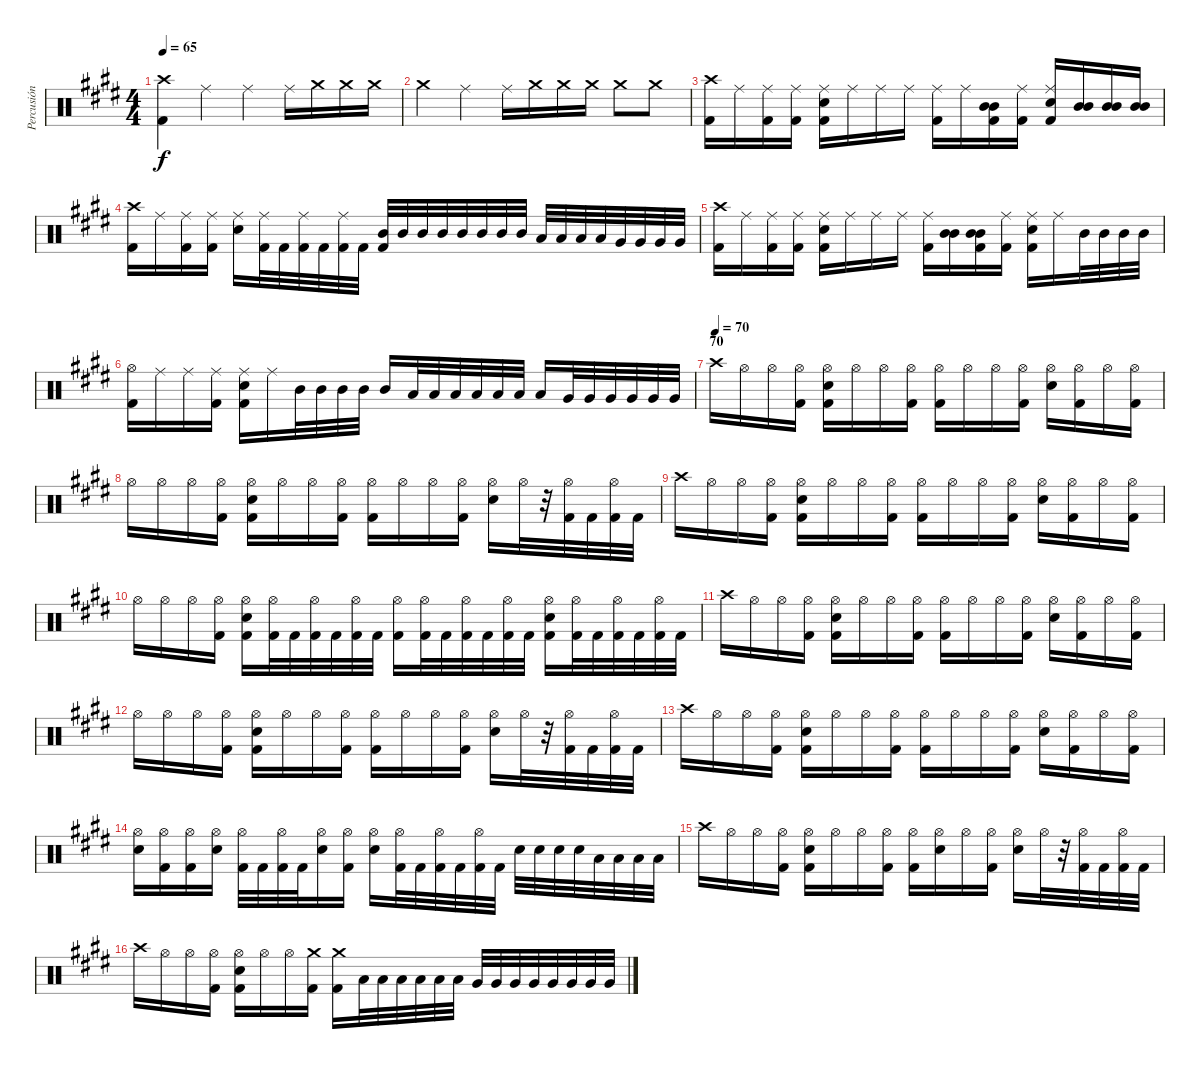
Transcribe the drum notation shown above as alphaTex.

\track ("Percusión" "Percusión") {instrument percussion}
\staff {score}
\articulation defaults
\ts (4 4)
\tempo 65
\clef neutral
\ks e
("Crash high (hit)" "Kick (hit) 2").4{dy f} "Ride (middle)".4 "Ride (middle)".4 "Ride (middle)".16 "Crash medium (hit)".16 "Crash medium (hit)".16 "Crash medium (hit)".16 |
"Crash medium (hit)".4 "Ride (middle)".4 "Ride (middle)".16 "Crash medium (hit)".16 "Crash medium (hit)".16 "Crash medium (hit)".16 "Crash medium (hit)".8 "Crash medium (hit)".8 |
("Crash high (hit)" "Kick (hit) 2").16 "Ride (middle)".16 ("Ride (middle)" "Kick (hit) 2").16 ("Ride (middle)" "Kick (hit) 2").16 ("Ride (middle)" "Snare (hit) 2" "Kick (hit) 2").16 "Ride (middle)".16 "Ride (middle)".16 "Ride (middle)".16 ("Ride (middle)" "Kick (hit) 2").16 "Ride (middle)".16 ("Mid Tom (hit)" "Mid Tom (hit)" "Kick (hit) 2").16 ("Ride (middle)" "Kick (hit) 2").16 ("Ride (middle)" "Snare (hit) 2" "Kick (hit) 2").16 ("Mid Tom (hit)" "Mid Tom (hit)").16 ("Mid Tom (hit)" "Mid Tom (hit)").16 ("Mid Tom (hit)" "Mid Tom (hit)").16 |
("Crash high (hit)" "Kick (hit) 2").16 "Ride (middle)".16 ("Ride (middle)" "Kick (hit) 2").16 ("Ride (middle)" "Kick (hit) 2").16 ("Ride (middle)" "Snare (hit) 2").16 ("Ride (middle)" "Kick (hit) 2").32 "Kick (hit) 2".32 ("Ride (middle)" "Kick (hit) 2").32 "Kick (hit) 2".32 ("Ride (middle)" "Kick (hit) 2").32 "Kick (hit) 2".32 ("Mid Tom (hit)" "Kick (hit) 2").32 "Mid Tom (hit)".32 "Mid Tom (hit)".32 "Mid Tom (hit)".32 "Mid Tom (hit)".32 "Mid Tom (hit)".32 "Mid Tom (hit)".32 "Mid Tom (hit)".32 "Low Tom (hit)".32 "Low Tom (hit)".32 "Low Tom (hit)".32 "Low Tom (hit)".32 "Very Low Tom (hit)".32 "Very Low Tom (hit)".32 "Very Low Tom (hit)".32 "Very Low Tom (hit)".32 |
("Crash high (hit)" "Kick (hit) 2").16 "Ride (middle)".16 ("Ride (middle)" "Kick (hit) 2").16 ("Ride (middle)" "Kick (hit) 2").16 ("Ride (middle)" "Snare (hit) 2" "Kick (hit) 2").16 "Ride (middle)".16 "Ride (middle)".16 "Ride (middle)".16 ("Ride (middle)" "Kick (hit) 2").16 ("Mid Tom (hit)" "Mid Tom (hit)").16 ("Mid Tom (hit)" "Mid Tom (hit)" "Kick (hit) 2").16 ("Ride (middle)" "Kick (hit) 2").16 ("Ride (middle)" "Snare (hit) 2" "Kick (hit) 2").16 "Ride (middle)".16 "Mid Tom (hit)".32 "Mid Tom (hit)".32 "Mid Tom (hit)".32 "Mid Tom (hit)".32 |
("Hi-Hat (open)" "Kick (hit) 2").16 "Ride (middle)".16 "Ride (middle)".16 ("Ride (middle)" "Kick (hit) 2").16 ("Ride (middle)" "Snare (hit) 2" "Kick (hit) 2").16 "Ride (middle)".16 "Mid Tom (hit)".32 "Mid Tom (hit)".32 "Mid Tom (hit)".32 "Mid Tom (hit)".32 "Mid Tom (hit)".16 "Low Tom (hit)".32 "Low Tom (hit)".32 "Low Tom (hit)".32 "Low Tom (hit)".32 "Low Tom (hit)".32 "Low Tom (hit)".32 "Low Tom (hit)".16 "Very Low Tom (hit)".32 "Very Low Tom (hit)".32 "Very Low Tom (hit)".32 "Very Low Tom (hit)".32 "Very Low Tom (hit)".32 "Very Low Tom (hit)".32 |
\section ("" "70")
\tempo (70)
"Crash high (hit)".16 "Hi-Hat (open)".16 "Hi-Hat (open)".16 ("Hi-Hat (open)" "Kick (hit) 2").16 ("Hi-Hat (open)" "Snare (hit) 2" "Kick (hit) 2").16 "Hi-Hat (open)".16 "Hi-Hat (open)".16 ("Hi-Hat (open)" "Kick (hit) 2").16 ("Hi-Hat (open)" "Kick (hit) 2").16 "Hi-Hat (open)".16 "Hi-Hat (open)".16 ("Hi-Hat (open)" "Kick (hit) 2").16 ("Hi-Hat (open)" "Snare (hit) 2").16 ("Hi-Hat (open)" "Kick (hit) 2").16 "Hi-Hat (open)".16 ("Hi-Hat (open)" "Kick (hit) 2").16 |
"Hi-Hat (open)".16 "Hi-Hat (open)".16 "Hi-Hat (open)".16 ("Hi-Hat (open)" "Kick (hit) 2").16 ("Hi-Hat (open)" "Snare (hit) 2" "Kick (hit) 2").16 "Hi-Hat (open)".16 "Hi-Hat (open)".16 ("Hi-Hat (open)" "Kick (hit) 2").16 ("Hi-Hat (open)" "Kick (hit) 2").16 "Hi-Hat (open)".16 "Hi-Hat (open)".16 ("Hi-Hat (open)" "Kick (hit) 2").16 ("Hi-Hat (open)" "Snare (hit) 2").16 "Hi-Hat (open)".32 r.32 ("Hi-Hat (open)" "Kick (hit) 2").32 "Kick (hit) 2".32 ("Hi-Hat (open)" "Kick (hit) 2").32 "Kick (hit) 2".32 |
"Crash high (hit)".16 "Hi-Hat (open)".16 "Hi-Hat (open)".16 ("Hi-Hat (open)" "Kick (hit) 2").16 ("Hi-Hat (open)" "Snare (hit) 2" "Kick (hit) 2").16 "Hi-Hat (open)".16 "Hi-Hat (open)".16 ("Hi-Hat (open)" "Kick (hit) 2").16 ("Hi-Hat (open)" "Kick (hit) 2").16 "Hi-Hat (open)".16 "Hi-Hat (open)".16 ("Hi-Hat (open)" "Kick (hit) 2").16 ("Hi-Hat (open)" "Snare (hit) 2").16 ("Hi-Hat (open)" "Kick (hit) 2").16 "Hi-Hat (open)".16 ("Hi-Hat (open)" "Kick (hit) 2").16 |
"Hi-Hat (open)".16 "Hi-Hat (open)".16 "Hi-Hat (open)".16 ("Hi-Hat (open)" "Kick (hit) 2").16 ("Hi-Hat (open)" "Snare (hit) 2" "Kick (hit) 2").16 ("Hi-Hat (open)" "Kick (hit) 2").32 "Kick (hit) 2".32 ("Hi-Hat (open)" "Kick (hit) 2").32 "Kick (hit) 2".32 ("Hi-Hat (open)" "Kick (hit) 2").32 "Kick (hit) 2".32 ("Hi-Hat (open)" "Kick (hit) 2").16 ("Hi-Hat (open)" "Kick (hit) 2").32 "Kick (hit) 2".32 ("Hi-Hat (open)" "Kick (hit) 2").32 "Kick (hit) 2".32 ("Hi-Hat (open)" "Kick (hit) 2").32 "Kick (hit) 2".32 ("Hi-Hat (open)" "Snare (hit) 2" "Kick (hit) 2").16 ("Hi-Hat (open)" "Kick (hit) 2").32 "Kick (hit) 2".32 ("Hi-Hat (open)" "Kick (hit) 2").32 "Kick (hit) 2".32 ("Hi-Hat (open)" "Kick (hit) 2").32 "Kick (hit) 2".32 |
"Crash high (hit)".16 "Hi-Hat (open)".16 "Hi-Hat (open)".16 ("Hi-Hat (open)" "Kick (hit) 2").16 ("Hi-Hat (open)" "Snare (hit) 2" "Kick (hit) 2").16 "Hi-Hat (open)".16 "Hi-Hat (open)".16 ("Hi-Hat (open)" "Kick (hit) 2").16 ("Hi-Hat (open)" "Kick (hit) 2").16 "Hi-Hat (open)".16 "Hi-Hat (open)".16 ("Hi-Hat (open)" "Kick (hit) 2").16 ("Hi-Hat (open)" "Snare (hit) 2").16 ("Hi-Hat (open)" "Kick (hit) 2").16 "Hi-Hat (open)".16 ("Hi-Hat (open)" "Kick (hit) 2").16 |
"Hi-Hat (open)".16 "Hi-Hat (open)".16 "Hi-Hat (open)".16 ("Hi-Hat (open)" "Kick (hit) 2").16 ("Hi-Hat (open)" "Snare (hit) 2" "Kick (hit) 2").16 "Hi-Hat (open)".16 "Hi-Hat (open)".16 ("Hi-Hat (open)" "Kick (hit) 2").16 ("Hi-Hat (open)" "Kick (hit) 2").16 "Hi-Hat (open)".16 "Hi-Hat (open)".16 ("Hi-Hat (open)" "Kick (hit) 2").16 ("Hi-Hat (open)" "Snare (hit) 2").16 "Hi-Hat (open)".32 r.32 ("Hi-Hat (open)" "Kick (hit) 2").32 "Kick (hit) 2".32 ("Hi-Hat (open)" "Kick (hit) 2").32 "Kick (hit) 2".32 |
"Crash high (hit)".16 "Hi-Hat (open)".16 "Hi-Hat (open)".16 ("Hi-Hat (open)" "Kick (hit) 2").16 ("Hi-Hat (open)" "Snare (hit) 2" "Kick (hit) 2").16 "Hi-Hat (open)".16 "Hi-Hat (open)".16 ("Hi-Hat (open)" "Kick (hit) 2").16 ("Hi-Hat (open)" "Kick (hit) 2").16 "Hi-Hat (open)".16 "Hi-Hat (open)".16 ("Hi-Hat (open)" "Kick (hit) 2").16 ("Hi-Hat (open)" "Snare (hit) 2").16 ("Hi-Hat (open)" "Kick (hit) 2").16 "Hi-Hat (open)".16 ("Hi-Hat (open)" "Kick (hit) 2").16 |
("Hi-Hat (open)" "Snare (hit) 2").16 ("Hi-Hat (open)" "Kick (hit) 2").16 ("Hi-Hat (open)" "Kick (hit) 2").16 ("Hi-Hat (open)" "Snare (hit) 2").16 ("Hi-Hat (open)" "Kick (hit) 2").32 "Kick (hit) 2".32 ("Hi-Hat (open)" "Kick (hit) 2").32 "Kick (hit) 2".32 ("Hi-Hat (open)" "Snare (hit) 2").16 ("Hi-Hat (open)" "Kick (hit) 2").16 ("Hi-Hat (open)" "Snare (hit) 2").16 ("Hi-Hat (open)" "Kick (hit) 2").32 "Kick (hit) 2".32 ("Hi-Hat (open)" "Kick (hit) 2").32 "Kick (hit) 2".32 ("Hi-Hat (open)" "Kick (hit) 2").32 "Kick (hit) 2".32 "Snare (hit) 2".32 "Snare (hit) 2".32 "Snare (hit) 2".32 "Snare (hit) 2".32 "Low Tom (hit)".32 "Low Tom (hit)".32 "Low Tom (hit)".32 "Low Tom (hit)".32 |
"Crash high (hit)".16 "Hi-Hat (open)".16 "Hi-Hat (open)".16 ("Hi-Hat (open)" "Kick (hit) 2").16 ("Hi-Hat (open)" "Snare (hit) 2" "Kick (hit) 2").16 "Hi-Hat (open)".16 "Hi-Hat (open)".16 ("Hi-Hat (open)" "Kick (hit) 2").16 ("Hi-Hat (open)" "Kick (hit) 2").16 ("Hi-Hat (open)" "Snare (hit) 2").16 "Hi-Hat (open)".16 ("Hi-Hat (open)" "Kick (hit) 2").16 ("Hi-Hat (open)" "Snare (hit) 2").16 "Hi-Hat (open)".32 r.32 ("Hi-Hat (open)" "Kick (hit) 2").32 "Kick (hit) 2".32 ("Hi-Hat (open)" "Kick (hit) 2").32 "Kick (hit) 2".32 |
"Crash high (hit)".16 "Hi-Hat (open)".16 "Hi-Hat (open)".16 ("Hi-Hat (open)" "Kick (hit) 2").16 ("Hi-Hat (open)" "Snare (hit) 2" "Kick (hit) 2").16 "Hi-Hat (open)".16 "Hi-Hat (open)".16 ("Crash medium (hit)" "Kick (hit) 2").16 ("Crash medium (hit)" "Kick (hit) 2").16 "Low Tom (hit)".32 "Low Tom (hit)".32 "Low Tom (hit)".32 "Low Tom (hit)".32 "Low Tom (hit)".32 "Low Tom (hit)".32 "Very Low Tom (hit)".32 "Very Low Tom (hit)".32 "Very Low Tom (hit)".32 "Very Low Tom (hit)".32 "Very Low Tom (hit)".32 "Very Low Tom (hit)".32 "Very Low Tom (hit)".32 "Very Low Tom (hit)".32
